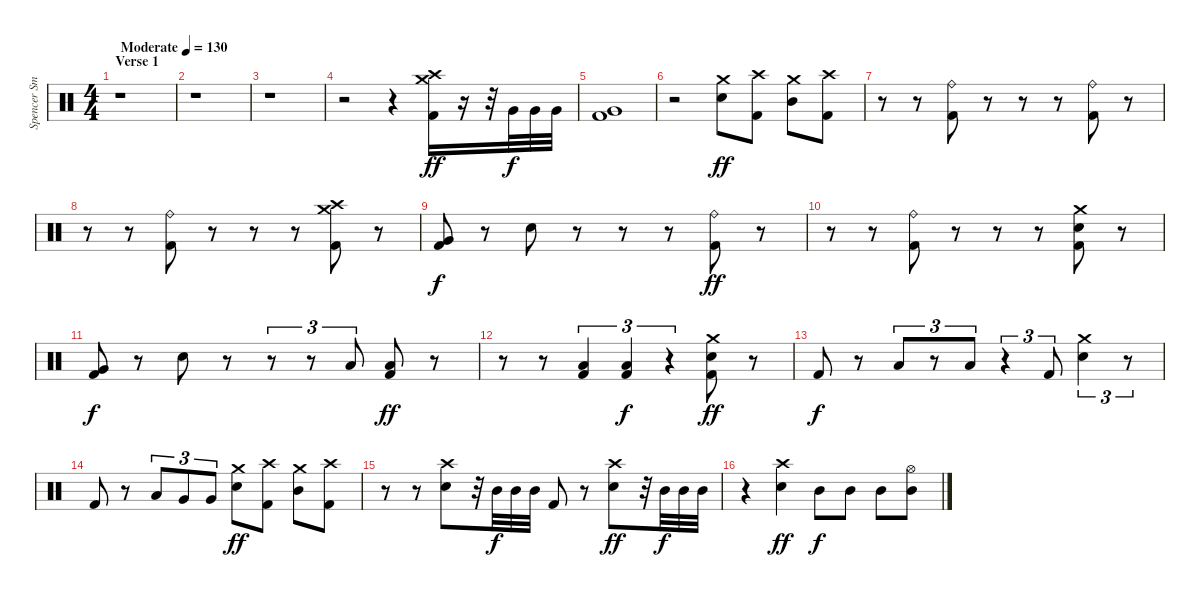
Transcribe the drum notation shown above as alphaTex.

\track ("Spencer Smith (Drums)" "Spencer Sm") {instrument percussion}
\staff {score}
\articulation defaults
\ts (4 4)
\section ("" "Verse 1")
\tempo (130 "Moderate")
\clef neutral
\ks c
r.1{dy ff} |
r.1 |
r.1 |
r.2 r.4 ("Crash high (hit)" "Crash medium (hit)" "Kick (hit) 2").16 r.16 r.32 "Very Low Tom (hit)".32{dy f} "Very Low Tom (hit)".32 "Very Low Tom (hit)".32 |
("Very Low Tom (hit)" "Kick (hit) 2").1 |
r.2 ("Crash medium (hit)" "Electric Snare (hit)").8{dy ff} ("Crash high (hit)" "Kick (hit) 2").8 ("Crash medium (hit)" "Mid Tom (hit)").8 ("Crash high (hit)" "Kick (hit) 2").8 |
r.8 r.8 ("Ride (bell)" "Kick (hit) 2").8 r.8 r.8 r.8 ("Ride (bell)" "Kick (hit) 2").8 r.8 |
r.8 r.8 ("Ride (bell)" "Kick (hit) 2").8 r.8 r.8 r.8 ("Crash high (hit)" "Crash medium (hit)" "Kick (hit) 2").8 r.8 |
("Very Low Tom (hit)" "Kick (hit) 2").8{dy f} r.8 "Electric Snare (hit)".8 r.8 r.8 r.8 ("Ride (bell)" "Kick (hit) 2").8{dy ff} r.8 |
r.8 r.8 ("Ride (bell)" "Kick (hit) 2").8 r.8 r.8 r.8 ("Crash medium (hit)" "Electric Snare (hit)" "Kick (hit) 2").8 r.8 |
("Very Low Tom (hit)" "Kick (hit) 2").8{dy f} r.8 "Electric Snare (hit)".8 r.8 r.8{tu (3 2)} r.8{tu (3 2)} "Low Tom (hit)".8{tu (3 2)} ("Low Tom (hit)" "Kick (hit) 2").8{dy ff} r.8 |
r.8 r.8 ("Low Tom (hit)" "Kick (hit) 2").4{tu (3 2)} ("Low Tom (hit)" "Kick (hit) 2").4{tu (3 2) dy f} r.4{tu (3 2)} ("Crash medium (hit)" "Electric Snare (hit)" "Kick (hit) 2").8{dy ff} r.8 |
"Kick (hit) 2".8{dy f} r.8 "Low Tom (hit)".8{tu (3 2)} r.8{tu (3 2)} "Low Tom (hit)".8{tu (3 2)} r.4{tu (3 2)} "Kick (hit) 2".8{tu (3 2)} ("Crash medium (hit)" "Electric Snare (hit)").4{tu (3 2)} r.8{tu (3 2)} |
"Kick (hit) 2".8 r.8 "Low Tom (hit)".8{tu (3 2)} "Very Low Tom (hit)".8{tu (3 2)} "Very Low Tom (hit)".8{tu (3 2)} ("Crash medium (hit)" "Electric Snare (hit)").8{dy ff} ("Crash high (hit)" "Kick (hit) 2").8 ("Crash medium (hit)" "Mid Tom (hit)").8 ("Crash high (hit)" "Kick (hit) 2").8 |
r.8 r.8 ("Crash high (hit)" "Electric Snare (hit)").8 r.32 "Mid Tom (hit)".32{dy f} "Mid Tom (hit)".32 "Mid Tom (hit)".32 "Kick (hit) 2".8 r.8 ("Crash high (hit)" "Electric Snare (hit)").8{dy ff} r.32 "Mid Tom (hit)".32{dy f} "Mid Tom (hit)".32 "Mid Tom (hit)".32 |
r.4 ("Crash high (hit)" "Electric Snare (hit)").4{dy ff} "Mid Tom (hit)".8{dy f} "Mid Tom (hit)".8 "Mid Tom (hit)".8 ("Hi-Hat (open)" "Mid Tom (hit)").8
